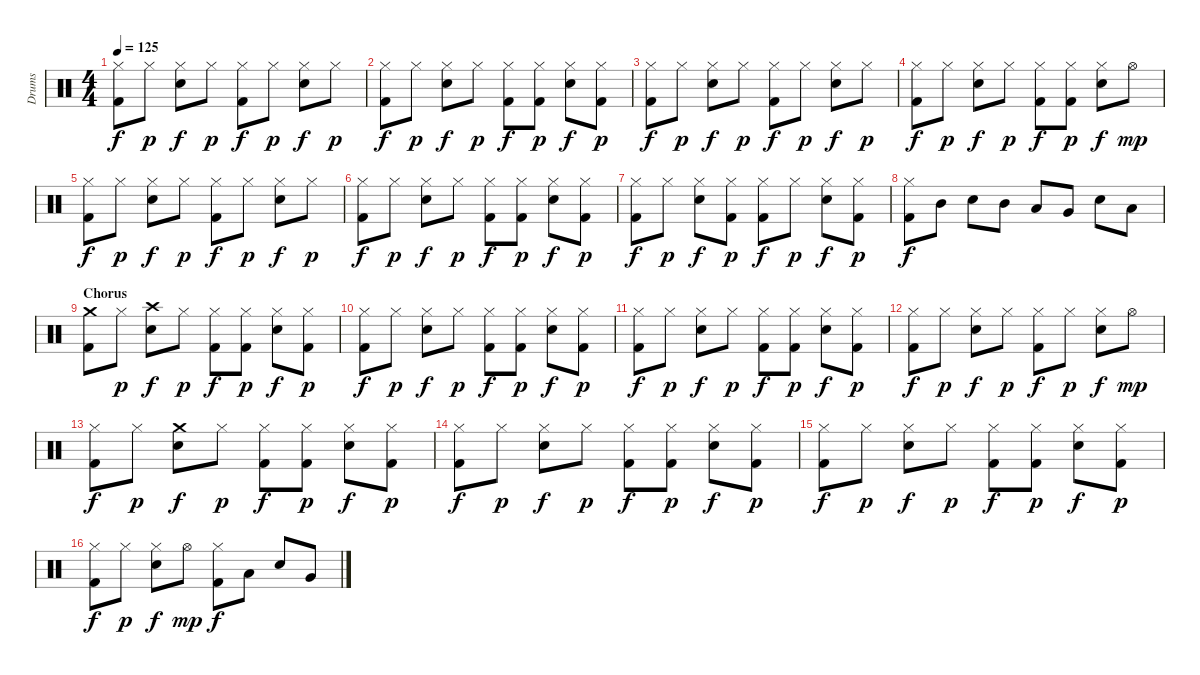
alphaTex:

\track ("Drums" "Drums") {instrument percussion}
\staff {score}
\articulation defaults
\ts (4 4)
\tempo 125
\clef neutral
\ks c
("Hi-Hat (closed)" "Kick (hit) 2").8{dy f} "Hi-Hat (closed)".8{dy p} ("Hi-Hat (closed)" "Snare (hit) 2").8{dy f} "Hi-Hat (closed)".8{dy p} ("Hi-Hat (closed)" "Kick (hit) 2").8{dy f} "Hi-Hat (closed)".8{dy p} ("Hi-Hat (closed)" "Snare (hit) 2").8{dy f} "Hi-Hat (closed)".8{dy p} |
("Hi-Hat (closed)" "Kick (hit) 2").8{dy f} "Hi-Hat (closed)".8{dy p} ("Hi-Hat (closed)" "Snare (hit) 2").8{dy f} "Hi-Hat (closed)".8{dy p} ("Hi-Hat (closed)" "Kick (hit) 2").8{dy f} ("Hi-Hat (closed)" "Kick (hit) 2").8{dy p} ("Hi-Hat (closed)" "Snare (hit) 2").8{dy f} ("Hi-Hat (closed)" "Kick (hit) 2").8{dy p} |
("Hi-Hat (closed)" "Kick (hit) 2").8{dy f} "Hi-Hat (closed)".8{dy p} ("Hi-Hat (closed)" "Snare (hit) 2").8{dy f} "Hi-Hat (closed)".8{dy p} ("Hi-Hat (closed)" "Kick (hit) 2").8{dy f} "Hi-Hat (closed)".8{dy p} ("Hi-Hat (closed)" "Snare (hit) 2").8{dy f} "Hi-Hat (closed)".8{dy p} |
("Hi-Hat (closed)" "Kick (hit) 2").8{dy f} "Hi-Hat (closed)".8{dy p} ("Hi-Hat (closed)" "Snare (hit) 2").8{dy f} "Hi-Hat (closed)".8{dy p} ("Hi-Hat (closed)" "Kick (hit) 2").8{dy f} ("Hi-Hat (closed)" "Kick (hit) 2").8{dy p} ("Hi-Hat (closed)" "Snare (hit) 2").8{dy f} "Hi-Hat (open)".8{dy mp} |
("Hi-Hat (closed)" "Kick (hit) 2").8{dy f} "Hi-Hat (closed)".8{dy p} ("Hi-Hat (closed)" "Snare (hit) 2").8{dy f} "Hi-Hat (closed)".8{dy p} ("Hi-Hat (closed)" "Kick (hit) 2").8{dy f} "Hi-Hat (closed)".8{dy p} ("Hi-Hat (closed)" "Snare (hit) 2").8{dy f} "Hi-Hat (closed)".8{dy p} |
("Hi-Hat (closed)" "Kick (hit) 2").8{dy f} "Hi-Hat (closed)".8{dy p} ("Hi-Hat (closed)" "Snare (hit) 2").8{dy f} "Hi-Hat (closed)".8{dy p} ("Hi-Hat (closed)" "Kick (hit) 2").8{dy f} ("Hi-Hat (closed)" "Kick (hit) 2").8{dy p} ("Hi-Hat (closed)" "Snare (hit) 2").8{dy f} ("Hi-Hat (closed)" "Kick (hit) 2").8{dy p} |
("Hi-Hat (closed)" "Kick (hit) 2").8{dy f} "Hi-Hat (closed)".8{dy p} ("Hi-Hat (closed)" "Snare (hit) 2").8{dy f} ("Hi-Hat (closed)" "Kick (hit) 2").8{dy p} ("Hi-Hat (closed)" "Kick (hit) 2").8{dy f} "Hi-Hat (closed)".8{dy p} ("Hi-Hat (closed)" "Snare (hit) 2").8{dy f} ("Hi-Hat (closed)" "Kick (hit) 2").8{dy p} |
("Hi-Hat (closed)" "Kick (hit) 2").8{dy f} "Mid Tom (hit)".8 "Snare (hit) 2".8 "Mid Tom (hit)".8 "Low Tom (hit)".8 "Very Low Tom (hit)".8 "Snare (hit) 2".8 "Low Floor Tom (hit)".8 |
\section ("" "Chorus")
("Crash medium (hit)" "Kick (hit) 2").8 "Hi-Hat (closed)".8{dy p} ("Crash high (hit)" "Snare (hit) 2").8{dy f} "Hi-Hat (closed)".8{dy p} ("Hi-Hat (closed)" "Kick (hit) 2").8{dy f} ("Hi-Hat (closed)" "Kick (hit) 2").8{dy p} ("Hi-Hat (closed)" "Snare (hit) 2").8{dy f} ("Hi-Hat (closed)" "Kick (hit) 2").8{dy p} |
("Hi-Hat (closed)" "Kick (hit) 2").8{dy f} "Hi-Hat (closed)".8{dy p} ("Hi-Hat (closed)" "Snare (hit) 2").8{dy f} "Hi-Hat (closed)".8{dy p} ("Hi-Hat (closed)" "Kick (hit) 2").8{dy f} ("Hi-Hat (closed)" "Kick (hit) 2").8{dy p} ("Hi-Hat (closed)" "Snare (hit) 2").8{dy f} ("Hi-Hat (closed)" "Kick (hit) 2").8{dy p} |
("Hi-Hat (closed)" "Kick (hit) 2").8{dy f} "Hi-Hat (closed)".8{dy p} ("Hi-Hat (closed)" "Snare (hit) 2").8{dy f} "Hi-Hat (closed)".8{dy p} ("Hi-Hat (closed)" "Kick (hit) 2").8{dy f} ("Hi-Hat (closed)" "Kick (hit) 2").8{dy p} ("Hi-Hat (closed)" "Snare (hit) 2").8{dy f} ("Hi-Hat (closed)" "Kick (hit) 2").8{dy p} |
("Hi-Hat (closed)" "Kick (hit) 2").8{dy f} "Hi-Hat (closed)".8{dy p} ("Hi-Hat (closed)" "Snare (hit) 2").8{dy f} "Hi-Hat (closed)".8{dy p} ("Hi-Hat (closed)" "Kick (hit) 2").8{dy f} "Hi-Hat (closed)".8{dy p} ("Hi-Hat (closed)" "Snare (hit) 2").8{dy f} "Hi-Hat (open)".8{dy mp} |
("Hi-Hat (closed)" "Kick (hit) 2").8{dy f} "Hi-Hat (closed)".8{dy p} ("Crash medium (hit)" "Snare (hit) 2").8{dy f} "Hi-Hat (closed)".8{dy p} ("Hi-Hat (closed)" "Kick (hit) 2").8{dy f} ("Hi-Hat (closed)" "Kick (hit) 2").8{dy p} ("Hi-Hat (closed)" "Snare (hit) 2").8{dy f} ("Hi-Hat (closed)" "Kick (hit) 2").8{dy p} |
("Hi-Hat (closed)" "Kick (hit) 2").8{dy f} "Hi-Hat (closed)".8{dy p} ("Hi-Hat (closed)" "Snare (hit) 2").8{dy f} "Hi-Hat (closed)".8{dy p} ("Hi-Hat (closed)" "Kick (hit) 2").8{dy f} ("Hi-Hat (closed)" "Kick (hit) 2").8{dy p} ("Hi-Hat (closed)" "Snare (hit) 2").8{dy f} ("Hi-Hat (closed)" "Kick (hit) 2").8{dy p} |
("Hi-Hat (closed)" "Kick (hit) 2").8{dy f} "Hi-Hat (closed)".8{dy p} ("Hi-Hat (closed)" "Snare (hit) 2").8{dy f} "Hi-Hat (closed)".8{dy p} ("Hi-Hat (closed)" "Kick (hit) 2").8{dy f} ("Hi-Hat (closed)" "Kick (hit) 2").8{dy p} ("Hi-Hat (closed)" "Snare (hit) 2").8{dy f} ("Hi-Hat (closed)" "Kick (hit) 2").8{dy p} |
("Hi-Hat (closed)" "Kick (hit) 2").8{dy f} "Hi-Hat (closed)".8{dy p} ("Hi-Hat (closed)" "Snare (hit) 2").8{dy f} "Hi-Hat (open)".8{dy mp} ("Hi-Hat (closed)" "Kick (hit) 2").8{dy f} "Low Tom (hit)".8 "Snare (hit) 2".8 "Very Low Tom (hit)".8
